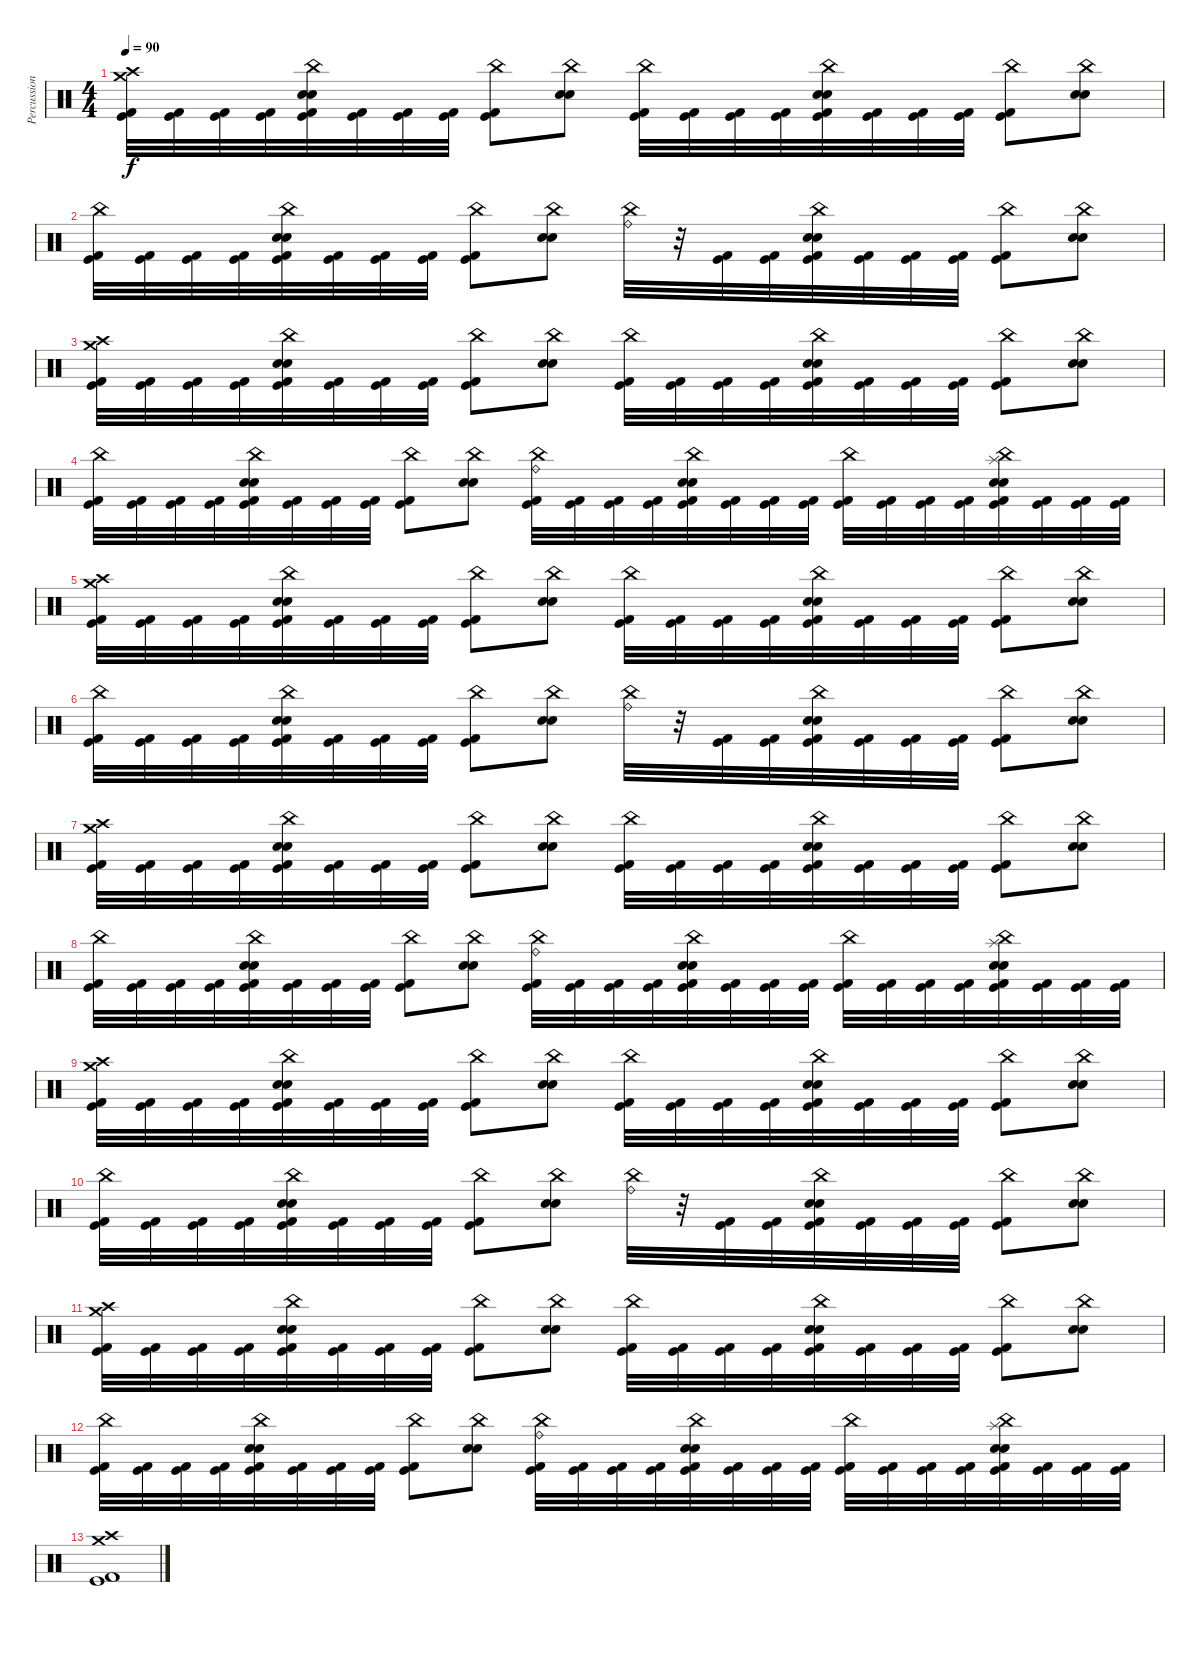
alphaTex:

\track ("Percussion" "Percussion") {instrument percussion}
\staff {score}
\articulation defaults
\ts (4 4)
\tempo 90
\clef neutral
\ks c
("Crash medium (hit)" "Crash high (hit)" "Kick (hit)" "Kick (hit) 2").32{dy f} ("Kick (hit)" "Kick (hit) 2").32 ("Kick (hit)" "Kick (hit) 2").32 ("Kick (hit)" "Kick (hit) 2").32 ("China (hit)" "Electric Snare (hit)" "Snare (hit) 2" "Kick (hit)" "Kick (hit) 2").32 ("Kick (hit)" "Kick (hit) 2").32 ("Kick (hit)" "Kick (hit) 2").32 ("Kick (hit)" "Kick (hit) 2").32 ("China (hit)" "Kick (hit)" "Kick (hit) 2").8 ("China (hit)" "Electric Snare (hit)" "Snare (hit) 2").8 ("China (hit)" "Kick (hit)" "Kick (hit) 2").32 ("Kick (hit)" "Kick (hit) 2").32 ("Kick (hit)" "Kick (hit) 2").32 ("Kick (hit)" "Kick (hit) 2").32 ("China (hit)" "Electric Snare (hit)" "Snare (hit) 2" "Kick (hit)" "Kick (hit) 2").32 ("Kick (hit)" "Kick (hit) 2").32 ("Kick (hit)" "Kick (hit) 2").32 ("Kick (hit)" "Kick (hit) 2").32 ("China (hit)" "Kick (hit)" "Kick (hit) 2").8 ("China (hit)" "Electric Snare (hit)" "Snare (hit) 2").8 |
("China (hit)" "Kick (hit)" "Kick (hit) 2").32 ("Kick (hit)" "Kick (hit) 2").32 ("Kick (hit)" "Kick (hit) 2").32 ("Kick (hit)" "Kick (hit) 2").32 ("China (hit)" "Electric Snare (hit)" "Snare (hit) 2" "Kick (hit)" "Kick (hit) 2").32 ("Kick (hit)" "Kick (hit) 2").32 ("Kick (hit)" "Kick (hit) 2").32 ("Kick (hit)" "Kick (hit) 2").32 ("China (hit)" "Kick (hit)" "Kick (hit) 2").8 ("China (hit)" "Electric Snare (hit)" "Snare (hit) 2").8 ("Ride (bell)" "China (hit)").32 r.32 ("Kick (hit)" "Kick (hit) 2").32 ("Kick (hit)" "Kick (hit) 2").32 ("China (hit)" "Electric Snare (hit)" "Snare (hit) 2" "Kick (hit)" "Kick (hit) 2").32 ("Kick (hit)" "Kick (hit) 2").32 ("Kick (hit)" "Kick (hit) 2").32 ("Kick (hit)" "Kick (hit) 2").32 ("China (hit)" "Kick (hit)" "Kick (hit) 2").8 ("China (hit)" "Electric Snare (hit)" "Snare (hit) 2").8 |
("Crash medium (hit)" "Crash high (hit)" "Kick (hit)" "Kick (hit) 2").32 ("Kick (hit)" "Kick (hit) 2").32 ("Kick (hit)" "Kick (hit) 2").32 ("Kick (hit)" "Kick (hit) 2").32 ("China (hit)" "Electric Snare (hit)" "Snare (hit) 2" "Kick (hit)" "Kick (hit) 2").32 ("Kick (hit)" "Kick (hit) 2").32 ("Kick (hit)" "Kick (hit) 2").32 ("Kick (hit)" "Kick (hit) 2").32 ("China (hit)" "Kick (hit)" "Kick (hit) 2").8 ("China (hit)" "Electric Snare (hit)" "Snare (hit) 2").8 ("China (hit)" "Kick (hit)" "Kick (hit) 2").32 ("Kick (hit)" "Kick (hit) 2").32 ("Kick (hit)" "Kick (hit) 2").32 ("Kick (hit)" "Kick (hit) 2").32 ("China (hit)" "Electric Snare (hit)" "Snare (hit) 2" "Kick (hit)" "Kick (hit) 2").32 ("Kick (hit)" "Kick (hit) 2").32 ("Kick (hit)" "Kick (hit) 2").32 ("Kick (hit)" "Kick (hit) 2").32 ("China (hit)" "Kick (hit)" "Kick (hit) 2").8 ("China (hit)" "Electric Snare (hit)" "Snare (hit) 2").8 |
("China (hit)" "Kick (hit)" "Kick (hit) 2").32 ("Kick (hit)" "Kick (hit) 2").32 ("Kick (hit)" "Kick (hit) 2").32 ("Kick (hit)" "Kick (hit) 2").32 ("China (hit)" "Electric Snare (hit)" "Snare (hit) 2" "Kick (hit)" "Kick (hit) 2").32 ("Kick (hit)" "Kick (hit) 2").32 ("Kick (hit)" "Kick (hit) 2").32 ("Kick (hit)" "Kick (hit) 2").32 ("China (hit)" "Kick (hit)" "Kick (hit) 2").8 ("China (hit)" "Electric Snare (hit)" "Snare (hit) 2").8 ("Ride (bell)" "China (hit)" "Kick (hit)" "Kick (hit) 2").32 ("Kick (hit)" "Kick (hit) 2").32 ("Kick (hit)" "Kick (hit) 2").32 ("Kick (hit)" "Kick (hit) 2").32 ("China (hit)" "Electric Snare (hit)" "Snare (hit) 2" "Kick (hit)" "Kick (hit) 2").32 ("Kick (hit)" "Kick (hit) 2").32 ("Kick (hit)" "Kick (hit) 2").32 ("Kick (hit)" "Kick (hit) 2").32 ("China (hit)" "Kick (hit)" "Kick (hit) 2").32 ("Kick (hit)" "Kick (hit) 2").32 ("Kick (hit)" "Kick (hit) 2").32 ("Kick (hit)" "Kick (hit) 2").32 ("Splash (hit)" "China (hit)" "Electric Snare (hit)" "Snare (hit) 2" "Kick (hit)" "Kick (hit) 2").32 ("Kick (hit)" "Kick (hit) 2").32 ("Kick (hit)" "Kick (hit) 2").32 ("Kick (hit)" "Kick (hit) 2").32 |
("Crash medium (hit)" "Crash high (hit)" "Kick (hit)" "Kick (hit) 2").32 ("Kick (hit)" "Kick (hit) 2").32 ("Kick (hit)" "Kick (hit) 2").32 ("Kick (hit)" "Kick (hit) 2").32 ("China (hit)" "Electric Snare (hit)" "Snare (hit) 2" "Kick (hit)" "Kick (hit) 2").32 ("Kick (hit)" "Kick (hit) 2").32 ("Kick (hit)" "Kick (hit) 2").32 ("Kick (hit)" "Kick (hit) 2").32 ("China (hit)" "Kick (hit)" "Kick (hit) 2").8 ("China (hit)" "Electric Snare (hit)" "Snare (hit) 2").8 ("China (hit)" "Kick (hit)" "Kick (hit) 2").32 ("Kick (hit)" "Kick (hit) 2").32 ("Kick (hit)" "Kick (hit) 2").32 ("Kick (hit)" "Kick (hit) 2").32 ("China (hit)" "Electric Snare (hit)" "Snare (hit) 2" "Kick (hit)" "Kick (hit) 2").32 ("Kick (hit)" "Kick (hit) 2").32 ("Kick (hit)" "Kick (hit) 2").32 ("Kick (hit)" "Kick (hit) 2").32 ("China (hit)" "Kick (hit)" "Kick (hit) 2").8 ("China (hit)" "Electric Snare (hit)" "Snare (hit) 2").8 |
("China (hit)" "Kick (hit)" "Kick (hit) 2").32 ("Kick (hit)" "Kick (hit) 2").32 ("Kick (hit)" "Kick (hit) 2").32 ("Kick (hit)" "Kick (hit) 2").32 ("China (hit)" "Electric Snare (hit)" "Snare (hit) 2" "Kick (hit)" "Kick (hit) 2").32 ("Kick (hit)" "Kick (hit) 2").32 ("Kick (hit)" "Kick (hit) 2").32 ("Kick (hit)" "Kick (hit) 2").32 ("China (hit)" "Kick (hit)" "Kick (hit) 2").8 ("China (hit)" "Electric Snare (hit)" "Snare (hit) 2").8 ("Ride (bell)" "China (hit)").32 r.32 ("Kick (hit)" "Kick (hit) 2").32 ("Kick (hit)" "Kick (hit) 2").32 ("China (hit)" "Electric Snare (hit)" "Snare (hit) 2" "Kick (hit)" "Kick (hit) 2").32 ("Kick (hit)" "Kick (hit) 2").32 ("Kick (hit)" "Kick (hit) 2").32 ("Kick (hit)" "Kick (hit) 2").32 ("China (hit)" "Kick (hit)" "Kick (hit) 2").8 ("China (hit)" "Electric Snare (hit)" "Snare (hit) 2").8 |
("Crash medium (hit)" "Crash high (hit)" "Kick (hit)" "Kick (hit) 2").32 ("Kick (hit)" "Kick (hit) 2").32 ("Kick (hit)" "Kick (hit) 2").32 ("Kick (hit)" "Kick (hit) 2").32 ("China (hit)" "Electric Snare (hit)" "Snare (hit) 2" "Kick (hit)" "Kick (hit) 2").32 ("Kick (hit)" "Kick (hit) 2").32 ("Kick (hit)" "Kick (hit) 2").32 ("Kick (hit)" "Kick (hit) 2").32 ("China (hit)" "Kick (hit)" "Kick (hit) 2").8 ("China (hit)" "Electric Snare (hit)" "Snare (hit) 2").8 ("China (hit)" "Kick (hit)" "Kick (hit) 2").32 ("Kick (hit)" "Kick (hit) 2").32 ("Kick (hit)" "Kick (hit) 2").32 ("Kick (hit)" "Kick (hit) 2").32 ("China (hit)" "Electric Snare (hit)" "Snare (hit) 2" "Kick (hit)" "Kick (hit) 2").32 ("Kick (hit)" "Kick (hit) 2").32 ("Kick (hit)" "Kick (hit) 2").32 ("Kick (hit)" "Kick (hit) 2").32 ("China (hit)" "Kick (hit)" "Kick (hit) 2").8 ("China (hit)" "Electric Snare (hit)" "Snare (hit) 2").8 |
("China (hit)" "Kick (hit)" "Kick (hit) 2").32 ("Kick (hit)" "Kick (hit) 2").32 ("Kick (hit)" "Kick (hit) 2").32 ("Kick (hit)" "Kick (hit) 2").32 ("China (hit)" "Electric Snare (hit)" "Snare (hit) 2" "Kick (hit)" "Kick (hit) 2").32 ("Kick (hit)" "Kick (hit) 2").32 ("Kick (hit)" "Kick (hit) 2").32 ("Kick (hit)" "Kick (hit) 2").32 ("China (hit)" "Kick (hit)" "Kick (hit) 2").8 ("China (hit)" "Electric Snare (hit)" "Snare (hit) 2").8 ("Ride (bell)" "China (hit)" "Kick (hit)" "Kick (hit) 2").32 ("Kick (hit)" "Kick (hit) 2").32 ("Kick (hit)" "Kick (hit) 2").32 ("Kick (hit)" "Kick (hit) 2").32 ("China (hit)" "Electric Snare (hit)" "Snare (hit) 2" "Kick (hit)" "Kick (hit) 2").32 ("Kick (hit)" "Kick (hit) 2").32 ("Kick (hit)" "Kick (hit) 2").32 ("Kick (hit)" "Kick (hit) 2").32 ("China (hit)" "Kick (hit)" "Kick (hit) 2").32 ("Kick (hit)" "Kick (hit) 2").32 ("Kick (hit)" "Kick (hit) 2").32 ("Kick (hit)" "Kick (hit) 2").32 ("Splash (hit)" "China (hit)" "Electric Snare (hit)" "Snare (hit) 2" "Kick (hit)" "Kick (hit) 2").32 ("Kick (hit)" "Kick (hit) 2").32 ("Kick (hit)" "Kick (hit) 2").32 ("Kick (hit)" "Kick (hit) 2").32 |
("Crash medium (hit)" "Crash high (hit)" "Kick (hit)" "Kick (hit) 2").32 ("Kick (hit)" "Kick (hit) 2").32 ("Kick (hit)" "Kick (hit) 2").32 ("Kick (hit)" "Kick (hit) 2").32 ("China (hit)" "Electric Snare (hit)" "Snare (hit) 2" "Kick (hit)" "Kick (hit) 2").32 ("Kick (hit)" "Kick (hit) 2").32 ("Kick (hit)" "Kick (hit) 2").32 ("Kick (hit)" "Kick (hit) 2").32 ("China (hit)" "Kick (hit)" "Kick (hit) 2").8 ("China (hit)" "Electric Snare (hit)" "Snare (hit) 2").8 ("China (hit)" "Kick (hit)" "Kick (hit) 2").32 ("Kick (hit)" "Kick (hit) 2").32 ("Kick (hit)" "Kick (hit) 2").32 ("Kick (hit)" "Kick (hit) 2").32 ("China (hit)" "Electric Snare (hit)" "Snare (hit) 2" "Kick (hit)" "Kick (hit) 2").32 ("Kick (hit)" "Kick (hit) 2").32 ("Kick (hit)" "Kick (hit) 2").32 ("Kick (hit)" "Kick (hit) 2").32 ("China (hit)" "Kick (hit)" "Kick (hit) 2").8 ("China (hit)" "Electric Snare (hit)" "Snare (hit) 2").8 |
("China (hit)" "Kick (hit)" "Kick (hit) 2").32 ("Kick (hit)" "Kick (hit) 2").32 ("Kick (hit)" "Kick (hit) 2").32 ("Kick (hit)" "Kick (hit) 2").32 ("China (hit)" "Electric Snare (hit)" "Snare (hit) 2" "Kick (hit)" "Kick (hit) 2").32 ("Kick (hit)" "Kick (hit) 2").32 ("Kick (hit)" "Kick (hit) 2").32 ("Kick (hit)" "Kick (hit) 2").32 ("China (hit)" "Kick (hit)" "Kick (hit) 2").8 ("China (hit)" "Electric Snare (hit)" "Snare (hit) 2").8 ("Ride (bell)" "China (hit)").32 r.32 ("Kick (hit)" "Kick (hit) 2").32 ("Kick (hit)" "Kick (hit) 2").32 ("China (hit)" "Electric Snare (hit)" "Snare (hit) 2" "Kick (hit)" "Kick (hit) 2").32 ("Kick (hit)" "Kick (hit) 2").32 ("Kick (hit)" "Kick (hit) 2").32 ("Kick (hit)" "Kick (hit) 2").32 ("China (hit)" "Kick (hit)" "Kick (hit) 2").8 ("China (hit)" "Electric Snare (hit)" "Snare (hit) 2").8 |
("Crash medium (hit)" "Crash high (hit)" "Kick (hit)" "Kick (hit) 2").32 ("Kick (hit)" "Kick (hit) 2").32 ("Kick (hit)" "Kick (hit) 2").32 ("Kick (hit)" "Kick (hit) 2").32 ("China (hit)" "Electric Snare (hit)" "Snare (hit) 2" "Kick (hit)" "Kick (hit) 2").32 ("Kick (hit)" "Kick (hit) 2").32 ("Kick (hit)" "Kick (hit) 2").32 ("Kick (hit)" "Kick (hit) 2").32 ("China (hit)" "Kick (hit)" "Kick (hit) 2").8 ("China (hit)" "Electric Snare (hit)" "Snare (hit) 2").8 ("China (hit)" "Kick (hit)" "Kick (hit) 2").32 ("Kick (hit)" "Kick (hit) 2").32 ("Kick (hit)" "Kick (hit) 2").32 ("Kick (hit)" "Kick (hit) 2").32 ("China (hit)" "Electric Snare (hit)" "Snare (hit) 2" "Kick (hit)" "Kick (hit) 2").32 ("Kick (hit)" "Kick (hit) 2").32 ("Kick (hit)" "Kick (hit) 2").32 ("Kick (hit)" "Kick (hit) 2").32 ("China (hit)" "Kick (hit)" "Kick (hit) 2").8 ("China (hit)" "Electric Snare (hit)" "Snare (hit) 2").8 |
("China (hit)" "Kick (hit)" "Kick (hit) 2").32 ("Kick (hit)" "Kick (hit) 2").32 ("Kick (hit)" "Kick (hit) 2").32 ("Kick (hit)" "Kick (hit) 2").32 ("China (hit)" "Electric Snare (hit)" "Snare (hit) 2" "Kick (hit)" "Kick (hit) 2").32 ("Kick (hit)" "Kick (hit) 2").32 ("Kick (hit)" "Kick (hit) 2").32 ("Kick (hit)" "Kick (hit) 2").32 ("China (hit)" "Kick (hit)" "Kick (hit) 2").8 ("China (hit)" "Electric Snare (hit)" "Snare (hit) 2").8 ("Ride (bell)" "China (hit)" "Kick (hit)" "Kick (hit) 2").32 ("Kick (hit)" "Kick (hit) 2").32 ("Kick (hit)" "Kick (hit) 2").32 ("Kick (hit)" "Kick (hit) 2").32 ("China (hit)" "Electric Snare (hit)" "Snare (hit) 2" "Kick (hit)" "Kick (hit) 2").32 ("Kick (hit)" "Kick (hit) 2").32 ("Kick (hit)" "Kick (hit) 2").32 ("Kick (hit)" "Kick (hit) 2").32 ("China (hit)" "Kick (hit)" "Kick (hit) 2").32 ("Kick (hit)" "Kick (hit) 2").32 ("Kick (hit)" "Kick (hit) 2").32 ("Kick (hit)" "Kick (hit) 2").32 ("Splash (hit)" "China (hit)" "Electric Snare (hit)" "Snare (hit) 2" "Kick (hit)" "Kick (hit) 2").32 ("Kick (hit)" "Kick (hit) 2").32 ("Kick (hit)" "Kick (hit) 2").32 ("Kick (hit)" "Kick (hit) 2").32 |
("Crash medium (hit)" "Crash high (hit)" "Kick (hit)" "Kick (hit) 2").1
